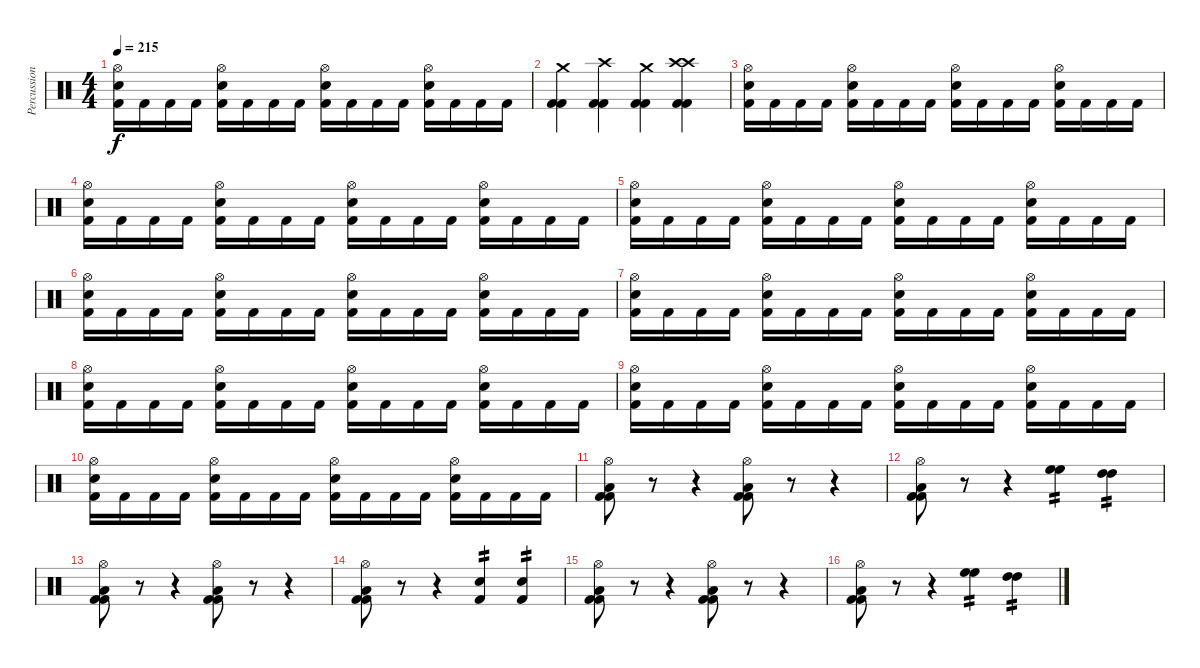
\track ("Percussion" "Percussion") {instrument percussion}
\staff {score}
\articulation defaults
\ts (4 4)
\tempo 215
\clef neutral
\ks c
("Hi-Hat (open)" "Electric Snare (hit)" "Kick (hit) 2").16{dy f} "Kick (hit) 2".16 "Kick (hit) 2".16 "Kick (hit) 2".16 ("Hi-Hat (open)" "Electric Snare (hit)" "Kick (hit) 2").16 "Kick (hit) 2".16 "Kick (hit) 2".16 "Kick (hit) 2".16 ("Hi-Hat (open)" "Electric Snare (hit)" "Kick (hit) 2").16 "Kick (hit) 2".16 "Kick (hit) 2".16 "Kick (hit) 2".16 ("Hi-Hat (open)" "Electric Snare (hit)" "Kick (hit) 2").16 "Kick (hit) 2".16 "Kick (hit) 2".16 "Kick (hit) 2".16 |
("Crash medium (hit)" "Kick (hit) 2" "Kick (hit) 2").4 ("Crash high (hit)" "Kick (hit) 2" "Kick (hit) 2").4 ("Crash medium (hit)" "Kick (hit) 2" "Kick (hit) 2").4 ("Crash high (hit)" "Crash high (hit)" "Kick (hit) 2" "Kick (hit) 2").4 |
("Hi-Hat (open)" "Electric Snare (hit)" "Kick (hit) 2").16 "Kick (hit) 2".16 "Kick (hit) 2".16 "Kick (hit) 2".16 ("Hi-Hat (open)" "Electric Snare (hit)" "Kick (hit) 2").16 "Kick (hit) 2".16 "Kick (hit) 2".16 "Kick (hit) 2".16 ("Hi-Hat (open)" "Electric Snare (hit)" "Kick (hit) 2").16 "Kick (hit) 2".16 "Kick (hit) 2".16 "Kick (hit) 2".16 ("Hi-Hat (open)" "Electric Snare (hit)" "Kick (hit) 2").16 "Kick (hit) 2".16 "Kick (hit) 2".16 "Kick (hit) 2".16 |
("Hi-Hat (open)" "Electric Snare (hit)" "Kick (hit) 2").16 "Kick (hit) 2".16 "Kick (hit) 2".16 "Kick (hit) 2".16 ("Hi-Hat (open)" "Electric Snare (hit)" "Kick (hit) 2").16 "Kick (hit) 2".16 "Kick (hit) 2".16 "Kick (hit) 2".16 ("Hi-Hat (open)" "Electric Snare (hit)" "Kick (hit) 2").16 "Kick (hit) 2".16 "Kick (hit) 2".16 "Kick (hit) 2".16 ("Hi-Hat (open)" "Electric Snare (hit)" "Kick (hit) 2").16 "Kick (hit) 2".16 "Kick (hit) 2".16 "Kick (hit) 2".16 |
("Hi-Hat (open)" "Electric Snare (hit)" "Kick (hit) 2").16 "Kick (hit) 2".16 "Kick (hit) 2".16 "Kick (hit) 2".16 ("Hi-Hat (open)" "Electric Snare (hit)" "Kick (hit) 2").16 "Kick (hit) 2".16 "Kick (hit) 2".16 "Kick (hit) 2".16 ("Hi-Hat (open)" "Electric Snare (hit)" "Kick (hit) 2").16 "Kick (hit) 2".16 "Kick (hit) 2".16 "Kick (hit) 2".16 ("Hi-Hat (open)" "Electric Snare (hit)" "Kick (hit) 2").16 "Kick (hit) 2".16 "Kick (hit) 2".16 "Kick (hit) 2".16 |
("Hi-Hat (open)" "Electric Snare (hit)" "Kick (hit) 2").16 "Kick (hit) 2".16 "Kick (hit) 2".16 "Kick (hit) 2".16 ("Hi-Hat (open)" "Electric Snare (hit)" "Kick (hit) 2").16 "Kick (hit) 2".16 "Kick (hit) 2".16 "Kick (hit) 2".16 ("Hi-Hat (open)" "Electric Snare (hit)" "Kick (hit) 2").16 "Kick (hit) 2".16 "Kick (hit) 2".16 "Kick (hit) 2".16 ("Hi-Hat (open)" "Electric Snare (hit)" "Kick (hit) 2").16 "Kick (hit) 2".16 "Kick (hit) 2".16 "Kick (hit) 2".16 |
("Hi-Hat (open)" "Electric Snare (hit)" "Kick (hit) 2").16 "Kick (hit) 2".16 "Kick (hit) 2".16 "Kick (hit) 2".16 ("Hi-Hat (open)" "Electric Snare (hit)" "Kick (hit) 2").16 "Kick (hit) 2".16 "Kick (hit) 2".16 "Kick (hit) 2".16 ("Hi-Hat (open)" "Electric Snare (hit)" "Kick (hit) 2").16 "Kick (hit) 2".16 "Kick (hit) 2".16 "Kick (hit) 2".16 ("Hi-Hat (open)" "Electric Snare (hit)" "Kick (hit) 2").16 "Kick (hit) 2".16 "Kick (hit) 2".16 "Kick (hit) 2".16 |
("Hi-Hat (open)" "Electric Snare (hit)" "Kick (hit) 2").16 "Kick (hit) 2".16 "Kick (hit) 2".16 "Kick (hit) 2".16 ("Hi-Hat (open)" "Electric Snare (hit)" "Kick (hit) 2").16 "Kick (hit) 2".16 "Kick (hit) 2".16 "Kick (hit) 2".16 ("Hi-Hat (open)" "Electric Snare (hit)" "Kick (hit) 2").16 "Kick (hit) 2".16 "Kick (hit) 2".16 "Kick (hit) 2".16 ("Hi-Hat (open)" "Electric Snare (hit)" "Kick (hit) 2").16 "Kick (hit) 2".16 "Kick (hit) 2".16 "Kick (hit) 2".16 |
("Hi-Hat (open)" "Electric Snare (hit)" "Kick (hit) 2").16 "Kick (hit) 2".16 "Kick (hit) 2".16 "Kick (hit) 2".16 ("Hi-Hat (open)" "Electric Snare (hit)" "Kick (hit) 2").16 "Kick (hit) 2".16 "Kick (hit) 2".16 "Kick (hit) 2".16 ("Hi-Hat (open)" "Electric Snare (hit)" "Kick (hit) 2").16 "Kick (hit) 2".16 "Kick (hit) 2".16 "Kick (hit) 2".16 ("Hi-Hat (open)" "Electric Snare (hit)" "Kick (hit) 2").16 "Kick (hit) 2".16 "Kick (hit) 2".16 "Kick (hit) 2".16 |
("Hi-Hat (open)" "Electric Snare (hit)" "Kick (hit) 2").16 "Kick (hit) 2".16 "Kick (hit) 2".16 "Kick (hit) 2".16 ("Hi-Hat (open)" "Electric Snare (hit)" "Kick (hit) 2").16 "Kick (hit) 2".16 "Kick (hit) 2".16 "Kick (hit) 2".16 ("Hi-Hat (open)" "Electric Snare (hit)" "Kick (hit) 2").16 "Kick (hit) 2".16 "Kick (hit) 2".16 "Kick (hit) 2".16 ("Hi-Hat (open)" "Electric Snare (hit)" "Kick (hit) 2").16 "Kick (hit) 2".16 "Kick (hit) 2".16 "Kick (hit) 2".16 |
("Low Floor Tom (hit)" "Hi-Hat (open)" "Kick (hit) 2" "Kick (hit) 2").8 r.8 r.4 ("Low Floor Tom (hit)" "Hi-Hat (open)" "Kick (hit) 2" "Kick (hit) 2").8 r.8 r.4 |
("Low Floor Tom (hit)" "Hi-Hat (open)" "Kick (hit) 2" "Kick (hit) 2").8 r.8 r.4 ("High Floor Tom (hit)" "High Floor Tom (hit)").4{tp 2} ("High Tom (hit)" "High Tom (hit)").4{tp 2} |
("Low Floor Tom (hit)" "Hi-Hat (open)" "Kick (hit) 2" "Kick (hit) 2").8 r.8 r.4 ("Low Floor Tom (hit)" "Hi-Hat (open)" "Kick (hit) 2" "Kick (hit) 2").8 r.8 r.4 |
("Low Floor Tom (hit)" "Hi-Hat (open)" "Kick (hit) 2" "Kick (hit) 2").8 r.8 r.4 ("Electric Snare (hit)" "Kick (hit) 2").4{tp 2} ("Electric Snare (hit)" "Kick (hit) 2").4{tp 2} |
("Low Floor Tom (hit)" "Hi-Hat (open)" "Kick (hit) 2" "Kick (hit) 2").8 r.8 r.4 ("Low Floor Tom (hit)" "Hi-Hat (open)" "Kick (hit) 2" "Kick (hit) 2").8 r.8 r.4 |
("Low Floor Tom (hit)" "Hi-Hat (open)" "Kick (hit) 2" "Kick (hit) 2").8 r.8 r.4 ("High Floor Tom (hit)" "High Floor Tom (hit)").4{tp 2} ("High Tom (hit)" "High Tom (hit)").4{tp 2}
